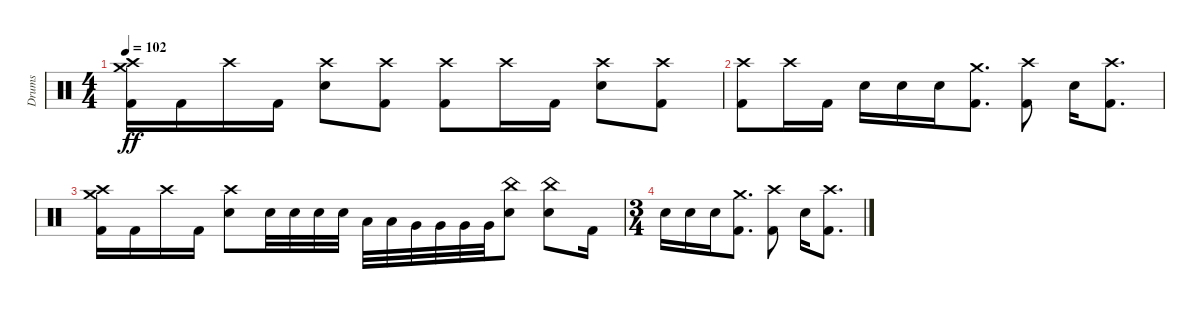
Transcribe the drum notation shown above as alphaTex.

\track ("Drums" "Drums") {instrument percussion}
\staff {score}
\articulation defaults
\ts (4 4)
\tempo 102
\clef neutral
\ks c
("Crash medium (hit)" "Crash high (hit)" "Kick (hit) 2").16{dy ff} "Kick (hit) 2".16 "Crash high (hit)".16 "Kick (hit) 2".16 ("Crash high (hit)" "Electric Snare (hit)").8 ("Crash high (hit)" "Kick (hit) 2").8 ("Crash high (hit)" "Kick (hit) 2").8 "Crash high (hit)".16 "Kick (hit) 2".16 ("Crash high (hit)" "Electric Snare (hit)").8 ("Crash high (hit)" "Kick (hit) 2").8 |
("Crash high (hit)" "Kick (hit) 2").8 "Crash high (hit)".16 "Kick (hit) 2".16 "Electric Snare (hit)".16 "Electric Snare (hit)".16 "Electric Snare (hit)".16 ("Crash medium (hit)" "Kick (hit) 2").8{d} ("Crash high (hit)" "Kick (hit) 2").8 "Electric Snare (hit)".16 ("Crash high (hit)" "Kick (hit) 2").8{d} |
("Crash medium (hit)" "Crash high (hit)" "Kick (hit) 2").16 "Kick (hit) 2".16 "Crash high (hit)".16 "Kick (hit) 2".16 ("Crash high (hit)" "Electric Snare (hit)").8 "Electric Snare (hit)".32 "Electric Snare (hit)".32 "Electric Snare (hit)".32 "Electric Snare (hit)".32 "Low Tom (hit)".32 "Low Tom (hit)".32 "Very Low Tom (hit)".32 "Very Low Tom (hit)".32 "Very Low Tom (hit)".32 "Very Low Tom (hit)".32 ("China (hit)" "Electric Snare (hit)").8 ("China (hit)" "Electric Snare (hit)").8 "Kick (hit) 2".16 |
\ts (3 4)
"Electric Snare (hit)".16 "Electric Snare (hit)".16 "Electric Snare (hit)".16 ("Crash medium (hit)" "Kick (hit) 2").8{d} ("Crash high (hit)" "Kick (hit) 2").8 "Electric Snare (hit)".16 ("Crash high (hit)" "Kick (hit) 2").8{d}
